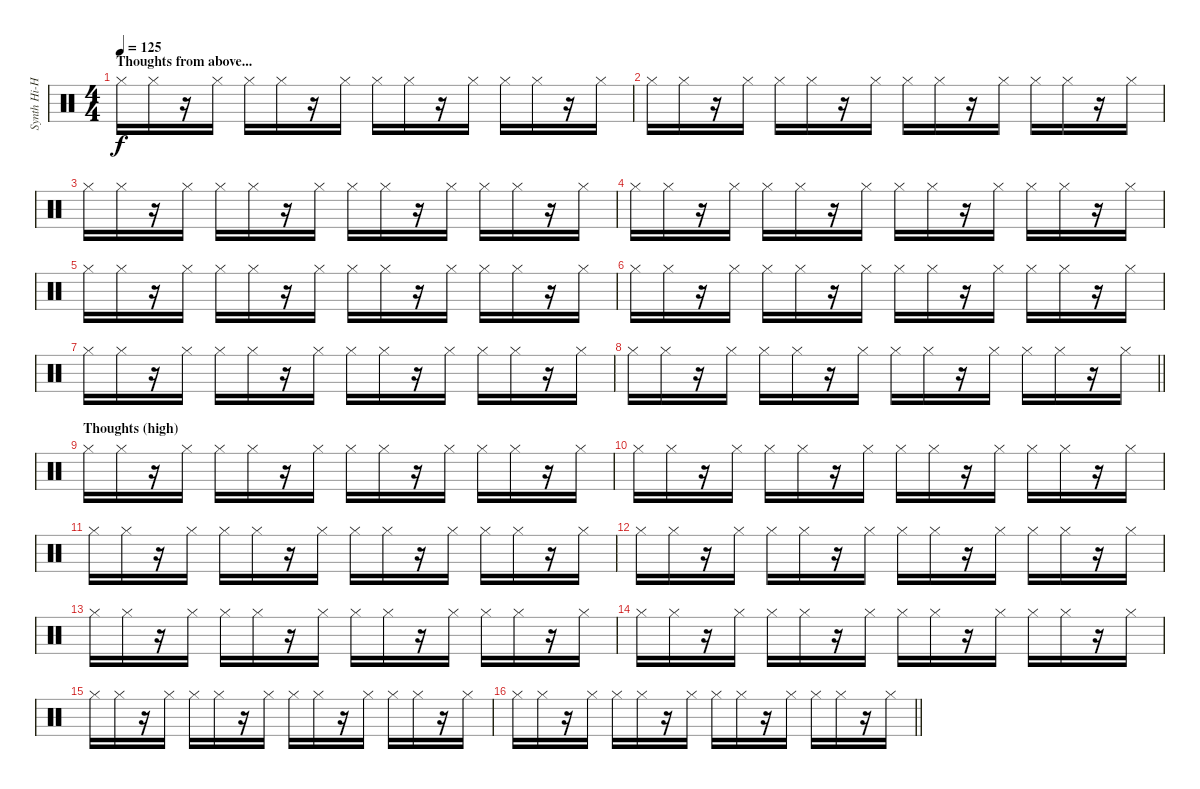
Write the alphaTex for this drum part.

\track ("Synth Hi-Hat (Gillian)" "Synth Hi-H") {instrument percussion}
\staff {score}
\articulation defaults
\ts (4 4)
\section ("" "Thoughts from above...")
\tempo 125
\clef neutral
\ks c "Hi-Hat (closed)".16{dy f} "Hi-Hat (closed)".16
r.16 "Hi-Hat (closed)".16 "Hi-Hat (closed)".16 "Hi-Hat (closed)".16 r.16 "Hi-Hat (closed)".16 "Hi-Hat (closed)".16 "Hi-Hat (closed)".16 r.16 "Hi-Hat (closed)".16 "Hi-Hat (closed)".16 "Hi-Hat (closed)".16 r.16 "Hi-Hat (closed)".16 |
"Hi-Hat (closed)".16 "Hi-Hat (closed)".16 r.16 "Hi-Hat (closed)".16 "Hi-Hat (closed)".16 "Hi-Hat (closed)".16 r.16 "Hi-Hat (closed)".16 "Hi-Hat (closed)".16 "Hi-Hat (closed)".16 r.16 "Hi-Hat (closed)".16 "Hi-Hat (closed)".16 "Hi-Hat (closed)".16 r.16 "Hi-Hat (closed)".16 |
"Hi-Hat (closed)".16 "Hi-Hat (closed)".16 r.16 "Hi-Hat (closed)".16 "Hi-Hat (closed)".16 "Hi-Hat (closed)".16 r.16 "Hi-Hat (closed)".16 "Hi-Hat (closed)".16 "Hi-Hat (closed)".16 r.16 "Hi-Hat (closed)".16 "Hi-Hat (closed)".16 "Hi-Hat (closed)".16 r.16 "Hi-Hat (closed)".16 |
"Hi-Hat (closed)".16 "Hi-Hat (closed)".16 r.16 "Hi-Hat (closed)".16 "Hi-Hat (closed)".16 "Hi-Hat (closed)".16 r.16 "Hi-Hat (closed)".16 "Hi-Hat (closed)".16 "Hi-Hat (closed)".16 r.16 "Hi-Hat (closed)".16 "Hi-Hat (closed)".16 "Hi-Hat (closed)".16 r.16 "Hi-Hat (closed)".16 |
"Hi-Hat (closed)".16 "Hi-Hat (closed)".16 r.16 "Hi-Hat (closed)".16 "Hi-Hat (closed)".16 "Hi-Hat (closed)".16 r.16 "Hi-Hat (closed)".16 "Hi-Hat (closed)".16 "Hi-Hat (closed)".16 r.16 "Hi-Hat (closed)".16 "Hi-Hat (closed)".16 "Hi-Hat (closed)".16 r.16 "Hi-Hat (closed)".16 |
"Hi-Hat (closed)".16 "Hi-Hat (closed)".16 r.16 "Hi-Hat (closed)".16 "Hi-Hat (closed)".16 "Hi-Hat (closed)".16 r.16 "Hi-Hat (closed)".16 "Hi-Hat (closed)".16 "Hi-Hat (closed)".16 r.16 "Hi-Hat (closed)".16 "Hi-Hat (closed)".16 "Hi-Hat (closed)".16 r.16 "Hi-Hat (closed)".16 |
"Hi-Hat (closed)".16 "Hi-Hat (closed)".16 r.16 "Hi-Hat (closed)".16 "Hi-Hat (closed)".16 "Hi-Hat (closed)".16 r.16 "Hi-Hat (closed)".16 "Hi-Hat (closed)".16 "Hi-Hat (closed)".16 r.16 "Hi-Hat (closed)".16 "Hi-Hat (closed)".16 "Hi-Hat (closed)".16 r.16 "Hi-Hat (closed)".16 |
\barLineRight lightlight "Hi-Hat (closed)".16 "Hi-Hat (closed)".16
r.16 "Hi-Hat (closed)".16 "Hi-Hat (closed)".16 "Hi-Hat (closed)".16 r.16 "Hi-Hat (closed)".16 "Hi-Hat (closed)".16 "Hi-Hat (closed)".16 r.16 "Hi-Hat (closed)".16 "Hi-Hat (closed)".16 "Hi-Hat (closed)".16 r.16 "Hi-Hat (closed)".16 |
\section ("" "Thoughts (high)")
"Hi-Hat (closed)".16 "Hi-Hat (closed)".16 r.16 "Hi-Hat (closed)".16 "Hi-Hat (closed)".16 "Hi-Hat (closed)".16 r.16 "Hi-Hat (closed)".16 "Hi-Hat (closed)".16 "Hi-Hat (closed)".16 r.16 "Hi-Hat (closed)".16 "Hi-Hat (closed)".16 "Hi-Hat (closed)".16 r.16 "Hi-Hat (closed)".16 |
"Hi-Hat (closed)".16 "Hi-Hat (closed)".16 r.16 "Hi-Hat (closed)".16 "Hi-Hat (closed)".16 "Hi-Hat (closed)".16 r.16 "Hi-Hat (closed)".16 "Hi-Hat (closed)".16 "Hi-Hat (closed)".16 r.16 "Hi-Hat (closed)".16 "Hi-Hat (closed)".16 "Hi-Hat (closed)".16 r.16 "Hi-Hat (closed)".16 |
"Hi-Hat (closed)".16 "Hi-Hat (closed)".16 r.16 "Hi-Hat (closed)".16 "Hi-Hat (closed)".16 "Hi-Hat (closed)".16 r.16 "Hi-Hat (closed)".16 "Hi-Hat (closed)".16 "Hi-Hat (closed)".16 r.16 "Hi-Hat (closed)".16 "Hi-Hat (closed)".16 "Hi-Hat (closed)".16 r.16 "Hi-Hat (closed)".16 |
"Hi-Hat (closed)".16 "Hi-Hat (closed)".16 r.16 "Hi-Hat (closed)".16 "Hi-Hat (closed)".16 "Hi-Hat (closed)".16 r.16 "Hi-Hat (closed)".16 "Hi-Hat (closed)".16 "Hi-Hat (closed)".16 r.16 "Hi-Hat (closed)".16 "Hi-Hat (closed)".16 "Hi-Hat (closed)".16 r.16 "Hi-Hat (closed)".16 |
"Hi-Hat (closed)".16 "Hi-Hat (closed)".16 r.16 "Hi-Hat (closed)".16 "Hi-Hat (closed)".16 "Hi-Hat (closed)".16 r.16 "Hi-Hat (closed)".16 "Hi-Hat (closed)".16 "Hi-Hat (closed)".16 r.16 "Hi-Hat (closed)".16 "Hi-Hat (closed)".16 "Hi-Hat (closed)".16 r.16 "Hi-Hat (closed)".16 |
"Hi-Hat (closed)".16 "Hi-Hat (closed)".16 r.16 "Hi-Hat (closed)".16 "Hi-Hat (closed)".16 "Hi-Hat (closed)".16 r.16 "Hi-Hat (closed)".16 "Hi-Hat (closed)".16 "Hi-Hat (closed)".16 r.16 "Hi-Hat (closed)".16 "Hi-Hat (closed)".16 "Hi-Hat (closed)".16 r.16 "Hi-Hat (closed)".16 |
"Hi-Hat (closed)".16 "Hi-Hat (closed)".16 r.16 "Hi-Hat (closed)".16 "Hi-Hat (closed)".16 "Hi-Hat (closed)".16 r.16 "Hi-Hat (closed)".16 "Hi-Hat (closed)".16 "Hi-Hat (closed)".16 r.16 "Hi-Hat (closed)".16 "Hi-Hat (closed)".16 "Hi-Hat (closed)".16 r.16 "Hi-Hat (closed)".16 |
\barLineRight lightlight "Hi-Hat (closed)".16 "Hi-Hat (closed)".16
r.16 "Hi-Hat (closed)".16 "Hi-Hat (closed)".16 "Hi-Hat (closed)".16 r.16 "Hi-Hat (closed)".16 "Hi-Hat (closed)".16 "Hi-Hat (closed)".16 r.16 "Hi-Hat (closed)".16 "Hi-Hat (closed)".16 "Hi-Hat (closed)".16 r.16 "Hi-Hat (closed)".16
